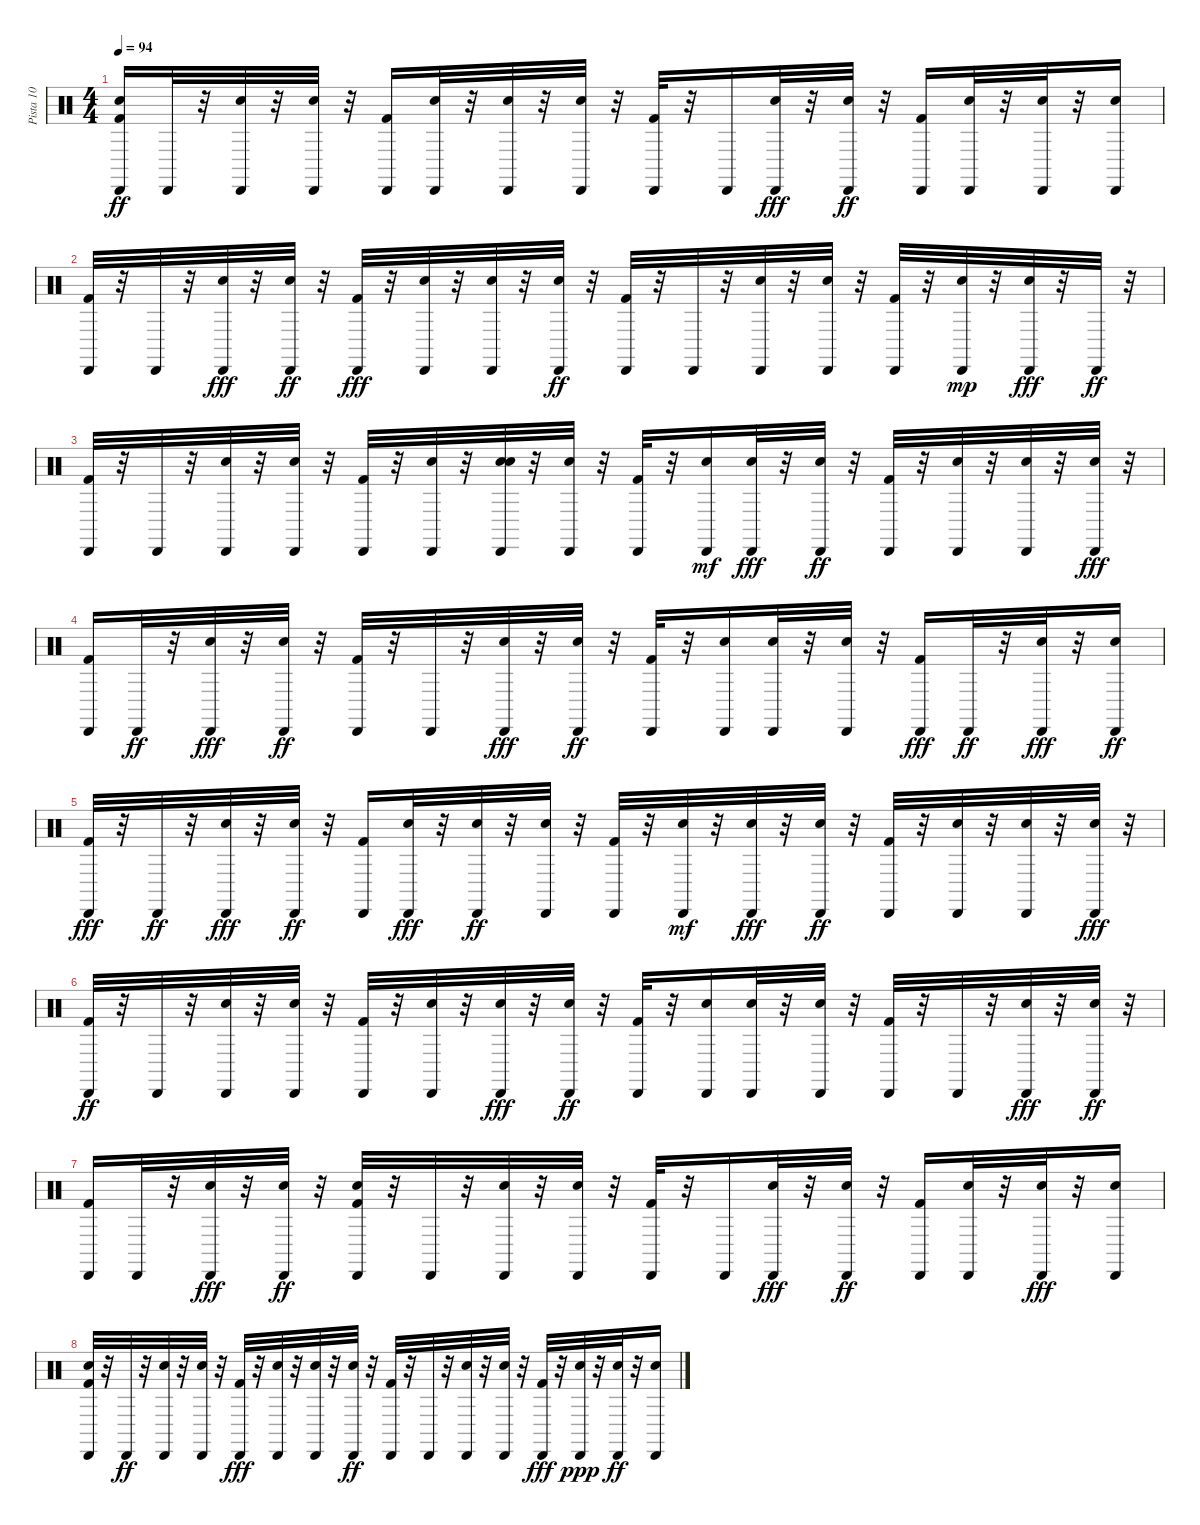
\track ("Pista 10" "Pista 10") {instrument percussion}
\staff {score}
\articulation defaults
\ts (4 4)
\tempo 94
\clef neutral
\ks c
("Kick (hit) 2" "Snare (hit) 2" "Cabasa (hit)").16{dy ff} "Cabasa (hit)".32 r.32 ("Snare (hit) 2" "Cabasa (hit)").32 r.32 ("Cabasa (hit)" "Electric Snare (hit)").32 r.32 ("Cabasa (hit)" "Kick (hit) 2").16 ("Cabasa (hit)" "Electric Snare (hit)").32 r.32 ("Snare (hit) 2" "Cabasa (hit)").32 r.32 ("Electric Snare (hit)" "Cabasa (hit)").32 r.32 ("Kick (hit) 2" "Cabasa (hit)").32 r.32 "Cabasa (hit)".16 ("Cabasa (hit)" "Snare (hit) 2").32{dy fff} r.32 ("Cabasa (hit)" "Electric Snare (hit)").32{dy ff} r.32 ("Cabasa (hit)" "Kick (hit) 2").16 ("Electric Snare (hit)" "Cabasa (hit)").32 r.32 ("Snare (hit) 2" "Cabasa (hit)").32 r.32 ("Electric Snare (hit)" "Cabasa (hit)").16 |
("Cabasa (hit)" "Kick (hit) 2").32 r.32 "Cabasa (hit)".32 r.32 ("Cabasa (hit)" "Snare (hit) 2").32{dy fff} r.32 ("Electric Snare (hit)" "Cabasa (hit)").32{dy ff} r.32 ("Kick (hit) 2" "Cabasa (hit)").32{dy fff} r.32 ("Electric Snare (hit)" "Cabasa (hit)").32 r.32 ("Cabasa (hit)" "Snare (hit) 2").32 r.32 ("Cabasa (hit)" "Electric Snare (hit)").32{dy ff} r.32 ("Cabasa (hit)" "Kick (hit) 2").32 r.32 "Cabasa (hit)".32 r.32 ("Snare (hit) 2" "Cabasa (hit)").32 r.32 ("Electric Snare (hit)" "Cabasa (hit)").32 r.32 ("Cabasa (hit)" "Kick (hit) 2").32 r.32 ("Cabasa (hit)" "Electric Snare (hit)").32{dy mp} r.32 ("Cabasa (hit)" "Snare (hit) 2").32{dy fff} r.32 "Cabasa (hit)".32{dy ff} r.32 |
("Kick (hit) 2" "Cabasa (hit)").32 r.32 "Cabasa (hit)".32 r.32 ("Snare (hit) 2" "Cabasa (hit)").32 r.32 ("Cabasa (hit)" "Electric Snare (hit)").32 r.32 ("Cabasa (hit)" "Kick (hit) 2").32 r.32 ("Cabasa (hit)" "Electric Snare (hit)").32 r.32 ("Snare (hit) 2" "Electric Snare (hit)" "Cabasa (hit)").32 r.32 ("Electric Snare (hit)" "Cabasa (hit)").32 r.32 ("Kick (hit) 2" "Cabasa (hit)").32 r.32 ("Cabasa (hit)" "Electric Snare (hit)").16{dy mf} ("Cabasa (hit)" "Snare (hit) 2").32{dy fff} r.32 ("Cabasa (hit)" "Electric Snare (hit)").32{dy ff} r.32 ("Kick (hit) 2" "Cabasa (hit)").32 r.32 ("Electric Snare (hit)" "Cabasa (hit)").32 r.32 ("Snare (hit) 2" "Cabasa (hit)").32 r.32 ("Cabasa (hit)" "Snare (hit) 2").32{dy fff} r.32 |
("Cabasa (hit)" "Kick (hit) 2").16 "Cabasa (hit)".32{dy ff} r.32 ("Cabasa (hit)" "Snare (hit) 2").32{dy fff} r.32 ("Electric Snare (hit)" "Cabasa (hit)").32{dy ff} r.32 ("Kick (hit) 2" "Cabasa (hit)").32 r.32 "Cabasa (hit)".32 r.32 ("Cabasa (hit)" "Snare (hit) 2").32{dy fff} r.32 ("Cabasa (hit)" "Electric Snare (hit)").32{dy ff} r.32 ("Cabasa (hit)" "Kick (hit) 2").32 r.32 ("Electric Snare (hit)" "Cabasa (hit)").16 ("Snare (hit) 2" "Cabasa (hit)").32 r.32 ("Electric Snare (hit)" "Cabasa (hit)").32 r.32 ("Cabasa (hit)" "Kick (hit) 2").16{dy fff} "Cabasa (hit)".32{dy ff} r.32 ("Cabasa (hit)" "Snare (hit) 2").32{dy fff} r.32 ("Electric Snare (hit)" "Cabasa (hit)").16{dy ff} |
("Kick (hit) 2" "Cabasa (hit)").32{dy fff} r.32 "Cabasa (hit)".32{dy ff} r.32 ("Cabasa (hit)" "Snare (hit) 2").32{dy fff} r.32 ("Cabasa (hit)" "Electric Snare (hit)").32{dy ff} r.32 ("Cabasa (hit)" "Kick (hit) 2").16 ("Electric Snare (hit)" "Cabasa (hit)").32{dy fff} r.32 ("Snare (hit) 2" "Cabasa (hit)").32{dy ff} r.32 ("Electric Snare (hit)" "Cabasa (hit)").32 r.32 ("Kick (hit) 2" "Cabasa (hit)").32 r.32 ("Cabasa (hit)" "Electric Snare (hit)").32{dy mf} r.32 ("Cabasa (hit)" "Snare (hit) 2").32{dy fff} r.32 ("Cabasa (hit)" "Electric Snare (hit)").32{dy ff} r.32 ("Kick (hit) 2" "Cabasa (hit)").32 r.32 ("Electric Snare (hit)" "Cabasa (hit)").32 r.32 ("Snare (hit) 2" "Cabasa (hit)").32 r.32 ("Cabasa (hit)" "Snare (hit) 2").32{dy fff} r.32 |
("Cabasa (hit)" "Kick (hit) 2").32{dy ff} r.32 "Cabasa (hit)".32 r.32 ("Snare (hit) 2" "Cabasa (hit)").32 r.32 ("Electric Snare (hit)" "Cabasa (hit)").32 r.32 ("Kick (hit) 2" "Cabasa (hit)").32 r.32 ("Cabasa (hit)" "Electric Snare (hit)").32 r.32 ("Cabasa (hit)" "Snare (hit) 2").32{dy fff} r.32 ("Cabasa (hit)" "Electric Snare (hit)").32{dy ff} r.32 ("Kick (hit) 2" "Cabasa (hit)").32 r.32 ("Electric Snare (hit)" "Cabasa (hit)").16 ("Snare (hit) 2" "Cabasa (hit)").32 r.32 ("Electric Snare (hit)" "Cabasa (hit)").32 r.32 ("Cabasa (hit)" "Kick (hit) 2").32 r.32 "Cabasa (hit)".32 r.32 ("Cabasa (hit)" "Snare (hit) 2").32{dy fff} r.32 ("Electric Snare (hit)" "Cabasa (hit)").32{dy ff} r.32 |
("Kick (hit) 2" "Cabasa (hit)").16 "Cabasa (hit)".32 r.32 ("Cabasa (hit)" "Snare (hit) 2").32{dy fff} r.32 ("Cabasa (hit)" "Electric Snare (hit)").32{dy ff} r.32 ("Cabasa (hit)" "Snare (hit) 2" "Kick (hit) 2").32 r.32 "Cabasa (hit)".32 r.32 ("Snare (hit) 2" "Cabasa (hit)").32 r.32 ("Electric Snare (hit)" "Cabasa (hit)").32 r.32 ("Cabasa (hit)" "Kick (hit) 2").32 r.32 "Cabasa (hit)".16 ("Cabasa (hit)" "Snare (hit) 2").32{dy fff} r.32 ("Electric Snare (hit)" "Cabasa (hit)").32{dy ff} r.32 ("Kick (hit) 2" "Cabasa (hit)").16 ("Electric Snare (hit)" "Cabasa (hit)").32 r.32 ("Cabasa (hit)" "Snare (hit) 2").32{dy fff} r.32 ("Cabasa (hit)" "Snare (hit) 2").16 |
("Cabasa (hit)" "Snare (hit) 2" "Kick (hit) 2").32 r.32 "Cabasa (hit)".32{dy ff} r.32 ("Snare (hit) 2" "Cabasa (hit)").32 r.32 ("Electric Snare (hit)" "Cabasa (hit)").32 r.32 ("Kick (hit) 2" "Cabasa (hit)").32{dy fff} r.32 ("Cabasa (hit)" "Electric Snare (hit)").32 r.32 ("Cabasa (hit)" "Snare (hit) 2").32 r.32 ("Cabasa (hit)" "Electric Snare (hit)").32{dy ff} r.32 ("Kick (hit) 2" "Cabasa (hit)").32 r.32 "Cabasa (hit)".32 r.32 ("Snare (hit) 2" "Cabasa (hit)").32 r.32 ("Cabasa (hit)" "Electric Snare (hit)").32 r.32 ("Cabasa (hit)" "Kick (hit) 2").32{dy fff} r.32 ("Cabasa (hit)" "Electric Snare (hit)").32{dy ppp} r.32 ("Snare (hit) 2" "Cabasa (hit)").32{dy ff} r.32 ("Electric Snare (hit)" "Cabasa (hit)").16
